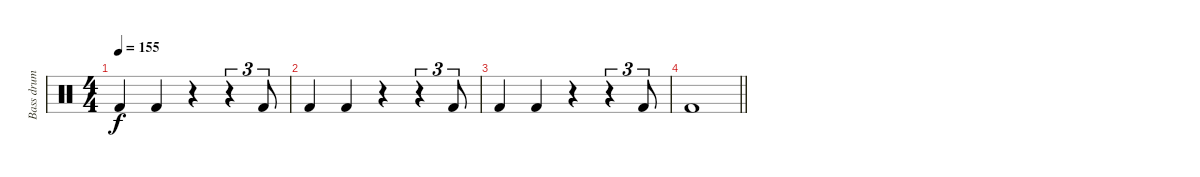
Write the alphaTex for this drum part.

\track ("Bass drum" "Bass drum") {instrument percussion}
\staff {score}
\articulation defaults
\ts (4 4)
\tempo 155
\clef neutral
\ks c "Kick (hit) 2".4{dy f} "Kick (hit) 2".4
r.4 r.4{tu (3 2)} "Kick (hit) 2".8{tu (3 2)} |
"Kick (hit) 2".4 "Kick (hit) 2".4 r.4 r.4{tu (3 2)} "Kick (hit) 2".8{tu (3 2)} |
"Kick (hit) 2".4 "Kick (hit) 2".4 r.4 r.4{tu (3 2)} "Kick (hit) 2".8{tu (3 2)} |
\barLineRight lightlight "Kick (hit) 2".1
